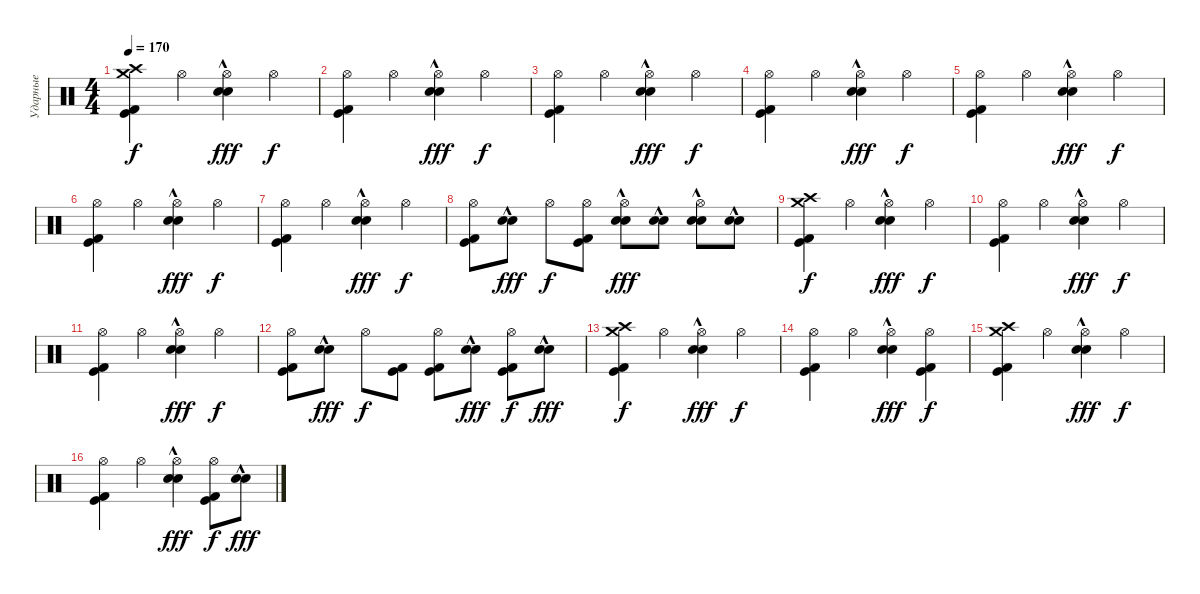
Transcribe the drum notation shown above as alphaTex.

\track ("Ударные" "Ударные") {instrument percussion}
\staff {score}
\articulation defaults
\ts (4 4)
\tempo 170
\clef neutral
\ks c
("Crash high (hit)" "Kick (hit)" "Kick (hit) 2" "Crash medium (hit)").4{dy f} "Hi-Hat (open)".4 ("Hi-Hat (open)" "Snare (hit) 2"{hac} "Electric Snare (hit)"{hac}).4{dy fff} "Hi-Hat (open)".4{dy f} |
("Hi-Hat (open)" "Kick (hit)" "Kick (hit) 2").4 "Hi-Hat (open)".4 ("Hi-Hat (open)" "Snare (hit) 2"{hac} "Electric Snare (hit)"{hac}).4{dy fff} "Hi-Hat (open)".4{dy f} |
("Hi-Hat (open)" "Kick (hit)" "Kick (hit) 2").4 "Hi-Hat (open)".4 ("Hi-Hat (open)" "Snare (hit) 2"{hac} "Electric Snare (hit)"{hac}).4{dy fff} "Hi-Hat (open)".4{dy f} |
("Hi-Hat (open)" "Kick (hit)" "Kick (hit) 2").4 "Hi-Hat (open)".4 ("Hi-Hat (open)" "Snare (hit) 2"{hac} "Electric Snare (hit)"{hac}).4{dy fff} "Hi-Hat (open)".4{dy f} |
("Hi-Hat (open)" "Kick (hit)" "Kick (hit) 2").4 "Hi-Hat (open)".4 ("Hi-Hat (open)" "Snare (hit) 2"{hac} "Electric Snare (hit)"{hac}).4{dy fff} "Hi-Hat (open)".4{dy f} |
("Hi-Hat (open)" "Kick (hit)" "Kick (hit) 2").4 "Hi-Hat (open)".4 ("Hi-Hat (open)" "Snare (hit) 2"{hac} "Electric Snare (hit)"{hac}).4{dy fff} "Hi-Hat (open)".4{dy f} |
("Hi-Hat (open)" "Kick (hit)" "Kick (hit) 2").4 "Hi-Hat (open)".4 ("Hi-Hat (open)" "Snare (hit) 2"{hac} "Electric Snare (hit)"{hac}).4{dy fff} "Hi-Hat (open)".4{dy f} |
("Hi-Hat (open)" "Kick (hit)" "Kick (hit) 2").8 ("Snare (hit) 2"{hac} "Electric Snare (hit)"{hac}).8{dy fff} "Hi-Hat (open)".8{dy f} ("Hi-Hat (open)" "Kick (hit)" "Kick (hit) 2").8 ("Hi-Hat (open)" "Snare (hit) 2"{hac} "Electric Snare (hit)"{hac}).8{dy fff} ("Snare (hit) 2"{hac} "Electric Snare (hit)"{hac}).8 ("Hi-Hat (open)" "Snare (hit) 2"{hac} "Electric Snare (hit)"{hac}).8 ("Snare (hit) 2"{hac} "Electric Snare (hit)"{hac}).8 |
("Crash high (hit)" "Kick (hit)" "Kick (hit) 2" "Crash medium (hit)").4{dy f} "Hi-Hat (open)".4 ("Hi-Hat (open)" "Snare (hit) 2"{hac} "Electric Snare (hit)"{hac}).4{dy fff} "Hi-Hat (open)".4{dy f} |
("Hi-Hat (open)" "Kick (hit)" "Kick (hit) 2").4 "Hi-Hat (open)".4 ("Hi-Hat (open)" "Snare (hit) 2"{hac} "Electric Snare (hit)"{hac}).4{dy fff} "Hi-Hat (open)".4{dy f} |
("Hi-Hat (open)" "Kick (hit)" "Kick (hit) 2").4 "Hi-Hat (open)".4 ("Hi-Hat (open)" "Snare (hit) 2"{hac} "Electric Snare (hit)"{hac}).4{dy fff} "Hi-Hat (open)".4{dy f} |
("Hi-Hat (open)" "Kick (hit)" "Kick (hit) 2").8 ("Snare (hit) 2"{hac} "Electric Snare (hit)"{hac}).8{dy fff} "Hi-Hat (open)".8{dy f} ("Kick (hit)" "Kick (hit) 2").8 ("Hi-Hat (open)" "Kick (hit)" "Kick (hit) 2").8 ("Snare (hit) 2"{hac} "Electric Snare (hit)"{hac}).8{dy fff} ("Hi-Hat (open)" "Kick (hit)" "Kick (hit) 2").8{dy f} ("Snare (hit) 2"{hac} "Electric Snare (hit)"{hac}).8{dy fff} |
("Crash high (hit)" "Kick (hit)" "Kick (hit) 2" "Crash medium (hit)").4{dy f} "Hi-Hat (open)".4 ("Hi-Hat (open)" "Snare (hit) 2"{hac} "Electric Snare (hit)"{hac}).4{dy fff} "Hi-Hat (open)".4{dy f} |
("Hi-Hat (open)" "Kick (hit)" "Kick (hit) 2").4 "Hi-Hat (open)".4 ("Hi-Hat (open)" "Snare (hit) 2"{hac} "Electric Snare (hit)"{hac}).4{dy fff} ("Hi-Hat (open)" "Kick (hit)" "Kick (hit) 2").4{dy f} |
("Crash high (hit)" "Kick (hit)" "Kick (hit) 2" "Crash medium (hit)").4 "Hi-Hat (open)".4 ("Hi-Hat (open)" "Snare (hit) 2"{hac} "Electric Snare (hit)"{hac}).4{dy fff} "Hi-Hat (open)".4{dy f} |
("Hi-Hat (open)" "Kick (hit)" "Kick (hit) 2").4 "Hi-Hat (open)".4 ("Hi-Hat (open)" "Snare (hit) 2"{hac} "Electric Snare (hit)"{hac}).4{dy fff} ("Hi-Hat (open)" "Kick (hit)" "Kick (hit) 2").8{dy f} ("Snare (hit) 2"{hac} "Electric Snare (hit)"{hac}).8{dy fff}
